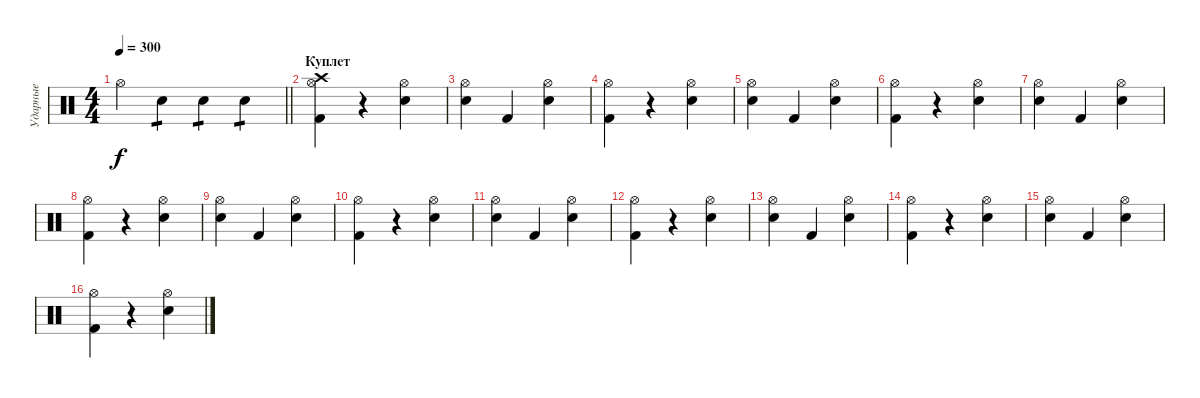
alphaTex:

\track ("Ударные" "Ударные") {instrument percussion}
\staff
\articulation defaults
\ts (4 4)
\tempo 300
\clef neutral
\barLineRight lightlight
\ks c "Hi-Hat (open)".4{dy f} "Electric Snare (hit)".4{tp 1} "Electric Snare (hit)".4{tp 1} "Electric Snare (hit)".4{tp 1}
|
\section ("" "Куплет")
("Hi-Hat (open)" "Kick (hit) 2" "Crash high (hit)").4 r.4 ("Electric Snare (hit)" "Hi-Hat (open)").4 |
("Snare (hit)" "Hi-Hat (open)").4 "Kick (hit) 2".4 ("Electric Snare (hit)" "Hi-Hat (open)").4 |
("Hi-Hat (open)" "Kick (hit) 2").4 r.4 ("Electric Snare (hit)" "Hi-Hat (open)").4 |
("Snare (hit)" "Hi-Hat (open)").4 "Kick (hit) 2".4 ("Electric Snare (hit)" "Hi-Hat (open)").4 |
("Hi-Hat (open)" "Kick (hit) 2").4 r.4 ("Electric Snare (hit)" "Hi-Hat (open)").4 |
("Snare (hit)" "Hi-Hat (open)").4 "Kick (hit) 2".4 ("Electric Snare (hit)" "Hi-Hat (open)").4 |
("Hi-Hat (open)" "Kick (hit) 2").4 r.4 ("Electric Snare (hit)" "Hi-Hat (open)").4 |
("Snare (hit)" "Hi-Hat (open)").4 "Kick (hit) 2".4 ("Electric Snare (hit)" "Hi-Hat (open)").4 |
("Hi-Hat (open)" "Kick (hit) 2").4 r.4 ("Electric Snare (hit)" "Hi-Hat (open)").4 |
("Snare (hit)" "Hi-Hat (open)").4 "Kick (hit) 2".4 ("Electric Snare (hit)" "Hi-Hat (open)").4 |
("Hi-Hat (open)" "Kick (hit) 2").4 r.4 ("Electric Snare (hit)" "Hi-Hat (open)").4 |
("Snare (hit)" "Hi-Hat (open)").4 "Kick (hit) 2".4 ("Electric Snare (hit)" "Hi-Hat (open)").4 |
("Hi-Hat (open)" "Kick (hit) 2").4 r.4 ("Electric Snare (hit)" "Hi-Hat (open)").4 |
("Snare (hit)" "Hi-Hat (open)").4 "Kick (hit) 2".4 ("Electric Snare (hit)" "Hi-Hat (open)").4 |
("Hi-Hat (open)" "Kick (hit) 2").4 r.4 ("Electric Snare (hit)" "Hi-Hat (open)").4
